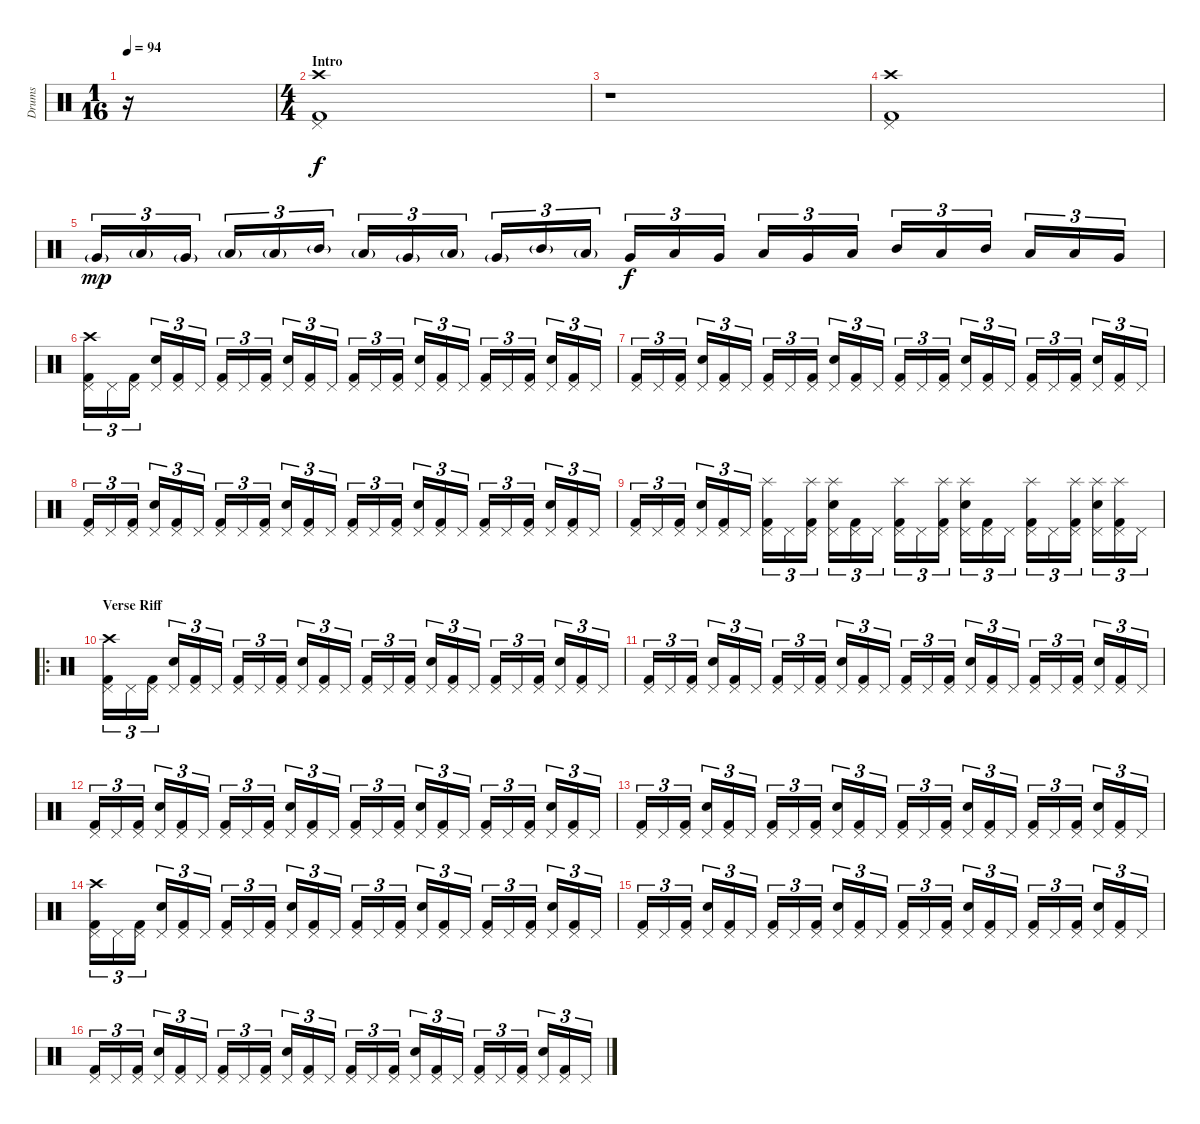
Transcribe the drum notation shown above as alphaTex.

\track ("Drums" "Drums") {instrument percussion}
\staff {score}
\articulation defaults
\ts (1 16)
\tempo 94
\clef neutral
\ks c
r.16{dy f} |
\ts (4 4)
\section ("" "Intro")
("Kick (hit) 2" "Pedal Hi-Hat (hit)" "Crash high (hit)").1 |
r.1 |
("Kick (hit) 2" "Pedal Hi-Hat (hit)" "Crash high (hit)").1 |
"Very Low Tom (hit)"{g}.16{tu (3 2) dy mp} "Low Floor Tom (hit)"{g}.16{tu (3 2)} "Very Low Tom (hit)"{g}.16{tu (3 2)} "Low Tom (hit)"{g}.16{tu (3 2)} "Low Tom (hit)"{g}.16{tu (3 2)} "Mid Tom (hit)"{g}.16{tu (3 2)} "Low Tom (hit)"{g}.16{tu (3 2)} "Very Low Tom (hit)"{g}.16{tu (3 2)} "Low Floor Tom (hit)"{g}.16{tu (3 2)} "Very Low Tom (hit)"{g}.16{tu (3 2)} "Mid Tom (hit)"{g}.16{tu (3 2)} "Low Tom (hit)"{g}.16{tu (3 2)} "Very Low Tom (hit)".16{tu (3 2) dy f} "Low Floor Tom (hit)".16{tu (3 2)} "Very Low Tom (hit)".16{tu (3 2)} "Low Tom (hit)".16{tu (3 2)} "Very Low Tom (hit)".16{tu (3 2)} "Low Tom (hit)".16{tu (3 2)} "Mid Tom (hit)".16{tu (3 2)} "Low Tom (hit)".16{tu (3 2)} "Mid Tom (hit)".16{tu (3 2)} "Low Tom (hit)".16{tu (3 2)} "Low Tom (hit)".16{tu (3 2)} "Very Low Tom (hit)".16{tu (3 2)} |
("Kick (hit) 2" "Pedal Hi-Hat (hit)" "Crash high (hit)").16{tu (3 2)} "Pedal Hi-Hat (hit)".16{tu (3 2)} ("Kick (hit) 2" "Pedal Hi-Hat (hit)").16{tu (3 2)} ("Snare (hit) 2" "Pedal Hi-Hat (hit)").16{tu (3 2)} ("Kick (hit) 2" "Pedal Hi-Hat (hit)").16{tu (3 2)} "Pedal Hi-Hat (hit)".16{tu (3 2)} ("Kick (hit) 2" "Pedal Hi-Hat (hit)").16{tu (3 2)} "Pedal Hi-Hat (hit)".16{tu (3 2)} ("Kick (hit) 2" "Pedal Hi-Hat (hit)").16{tu (3 2)} ("Snare (hit) 2" "Pedal Hi-Hat (hit)").16{tu (3 2)} ("Kick (hit) 2" "Pedal Hi-Hat (hit)").16{tu (3 2)} "Pedal Hi-Hat (hit)".16{tu (3 2)} ("Kick (hit) 2" "Pedal Hi-Hat (hit)").16{tu (3 2)} "Pedal Hi-Hat (hit)".16{tu (3 2)} ("Kick (hit) 2" "Pedal Hi-Hat (hit)").16{tu (3 2)} ("Snare (hit) 2" "Pedal Hi-Hat (hit)").16{tu (3 2)} ("Kick (hit) 2" "Pedal Hi-Hat (hit)").16{tu (3 2)} "Pedal Hi-Hat (hit)".16{tu (3 2)} ("Kick (hit) 2" "Pedal Hi-Hat (hit)").16{tu (3 2)} "Pedal Hi-Hat (hit)".16{tu (3 2)} ("Kick (hit) 2" "Pedal Hi-Hat (hit)").16{tu (3 2)} ("Snare (hit) 2" "Pedal Hi-Hat (hit)").16{tu (3 2)} ("Kick (hit) 2" "Pedal Hi-Hat (hit)").16{tu (3 2)} "Pedal Hi-Hat (hit)".16{tu (3 2)} |
("Kick (hit) 2" "Pedal Hi-Hat (hit)").16{tu (3 2)} "Pedal Hi-Hat (hit)".16{tu (3 2)} ("Kick (hit) 2" "Pedal Hi-Hat (hit)").16{tu (3 2)} ("Snare (hit) 2" "Pedal Hi-Hat (hit)").16{tu (3 2)} ("Kick (hit) 2" "Pedal Hi-Hat (hit)").16{tu (3 2)} "Pedal Hi-Hat (hit)".16{tu (3 2)} ("Kick (hit) 2" "Pedal Hi-Hat (hit)").16{tu (3 2)} "Pedal Hi-Hat (hit)".16{tu (3 2)} ("Kick (hit) 2" "Pedal Hi-Hat (hit)").16{tu (3 2)} ("Snare (hit) 2" "Pedal Hi-Hat (hit)").16{tu (3 2)} ("Kick (hit) 2" "Pedal Hi-Hat (hit)").16{tu (3 2)} "Pedal Hi-Hat (hit)".16{tu (3 2)} ("Kick (hit) 2" "Pedal Hi-Hat (hit)").16{tu (3 2)} "Pedal Hi-Hat (hit)".16{tu (3 2)} ("Kick (hit) 2" "Pedal Hi-Hat (hit)").16{tu (3 2)} ("Snare (hit) 2" "Pedal Hi-Hat (hit)").16{tu (3 2)} ("Kick (hit) 2" "Pedal Hi-Hat (hit)").16{tu (3 2)} "Pedal Hi-Hat (hit)".16{tu (3 2)} ("Kick (hit) 2" "Pedal Hi-Hat (hit)").16{tu (3 2)} "Pedal Hi-Hat (hit)".16{tu (3 2)} ("Kick (hit) 2" "Pedal Hi-Hat (hit)").16{tu (3 2)} ("Snare (hit) 2" "Pedal Hi-Hat (hit)").16{tu (3 2)} ("Kick (hit) 2" "Pedal Hi-Hat (hit)").16{tu (3 2)} "Pedal Hi-Hat (hit)".16{tu (3 2)} |
("Kick (hit) 2" "Pedal Hi-Hat (hit)").16{tu (3 2)} "Pedal Hi-Hat (hit)".16{tu (3 2)} ("Kick (hit) 2" "Pedal Hi-Hat (hit)").16{tu (3 2)} ("Snare (hit) 2" "Pedal Hi-Hat (hit)").16{tu (3 2)} ("Kick (hit) 2" "Pedal Hi-Hat (hit)").16{tu (3 2)} "Pedal Hi-Hat (hit)".16{tu (3 2)} ("Kick (hit) 2" "Pedal Hi-Hat (hit)").16{tu (3 2)} "Pedal Hi-Hat (hit)".16{tu (3 2)} ("Kick (hit) 2" "Pedal Hi-Hat (hit)").16{tu (3 2)} ("Snare (hit) 2" "Pedal Hi-Hat (hit)").16{tu (3 2)} ("Kick (hit) 2" "Pedal Hi-Hat (hit)").16{tu (3 2)} "Pedal Hi-Hat (hit)".16{tu (3 2)} ("Kick (hit) 2" "Pedal Hi-Hat (hit)").16{tu (3 2)} "Pedal Hi-Hat (hit)".16{tu (3 2)} ("Kick (hit) 2" "Pedal Hi-Hat (hit)").16{tu (3 2)} ("Snare (hit) 2" "Pedal Hi-Hat (hit)").16{tu (3 2)} ("Kick (hit) 2" "Pedal Hi-Hat (hit)").16{tu (3 2)} "Pedal Hi-Hat (hit)".16{tu (3 2)} ("Kick (hit) 2" "Pedal Hi-Hat (hit)").16{tu (3 2)} "Pedal Hi-Hat (hit)".16{tu (3 2)} ("Kick (hit) 2" "Pedal Hi-Hat (hit)").16{tu (3 2)} ("Snare (hit) 2" "Pedal Hi-Hat (hit)").16{tu (3 2)} ("Kick (hit) 2" "Pedal Hi-Hat (hit)").16{tu (3 2)} "Pedal Hi-Hat (hit)".16{tu (3 2)} |
("Kick (hit) 2" "Pedal Hi-Hat (hit)").16{tu (3 2)} "Pedal Hi-Hat (hit)".16{tu (3 2)} ("Kick (hit) 2" "Pedal Hi-Hat (hit)").16{tu (3 2)} ("Snare (hit) 2" "Pedal Hi-Hat (hit)").16{tu (3 2)} ("Kick (hit) 2" "Pedal Hi-Hat (hit)").16{tu (3 2)} "Pedal Hi-Hat (hit)".16{tu (3 2)} ("Kick (hit) 2" "Pedal Hi-Hat (hit)" "Splash (hit)").16{tu (3 2)} "Pedal Hi-Hat (hit)".16{tu (3 2)} ("Kick (hit) 2" "Pedal Hi-Hat (hit)" "Splash (hit)").16{tu (3 2)} ("Snare (hit) 2" "Pedal Hi-Hat (hit)" "Splash (hit)").16{tu (3 2)} ("Kick (hit) 2" "Pedal Hi-Hat (hit)").16{tu (3 2)} "Pedal Hi-Hat (hit)".16{tu (3 2)} ("Kick (hit) 2" "Pedal Hi-Hat (hit)" "Splash (hit)").16{tu (3 2)} "Pedal Hi-Hat (hit)".16{tu (3 2)} ("Kick (hit) 2" "Pedal Hi-Hat (hit)" "Splash (hit)").16{tu (3 2)} ("Snare (hit) 2" "Pedal Hi-Hat (hit)" "Splash (hit)").16{tu (3 2)} ("Kick (hit) 2" "Pedal Hi-Hat (hit)").16{tu (3 2)} "Pedal Hi-Hat (hit)".16{tu (3 2)} ("Kick (hit) 2" "Pedal Hi-Hat (hit)" "Splash (hit)").16{tu (3 2)} "Pedal Hi-Hat (hit)".16{tu (3 2)} ("Kick (hit) 2" "Pedal Hi-Hat (hit)" "Splash (hit)").16{tu (3 2)} ("Snare (hit) 2" "Pedal Hi-Hat (hit)" "Splash (hit)").16{tu (3 2)} ("Kick (hit) 2" "Pedal Hi-Hat (hit)" "Splash (hit)").16{tu (3 2)} "Pedal Hi-Hat (hit)".16{tu (3 2)} |
\ro
\section ("" "Verse Riff")
("Kick (hit) 2" "Pedal Hi-Hat (hit)" "Crash high (hit)").16{tu (3 2)} "Pedal Hi-Hat (hit)".16{tu (3 2)} ("Kick (hit) 2" "Pedal Hi-Hat (hit)").16{tu (3 2)} ("Snare (hit) 2" "Pedal Hi-Hat (hit)").16{tu (3 2)} ("Kick (hit) 2" "Pedal Hi-Hat (hit)").16{tu (3 2)} "Pedal Hi-Hat (hit)".16{tu (3 2)} ("Kick (hit) 2" "Pedal Hi-Hat (hit)").16{tu (3 2)} "Pedal Hi-Hat (hit)".16{tu (3 2)} ("Kick (hit) 2" "Pedal Hi-Hat (hit)").16{tu (3 2)} ("Snare (hit) 2" "Pedal Hi-Hat (hit)").16{tu (3 2)} ("Kick (hit) 2" "Pedal Hi-Hat (hit)").16{tu (3 2)} "Pedal Hi-Hat (hit)".16{tu (3 2)} ("Kick (hit) 2" "Pedal Hi-Hat (hit)").16{tu (3 2)} "Pedal Hi-Hat (hit)".16{tu (3 2)} ("Kick (hit) 2" "Pedal Hi-Hat (hit)").16{tu (3 2)} ("Snare (hit) 2" "Pedal Hi-Hat (hit)").16{tu (3 2)} ("Kick (hit) 2" "Pedal Hi-Hat (hit)").16{tu (3 2)} "Pedal Hi-Hat (hit)".16{tu (3 2)} ("Kick (hit) 2" "Pedal Hi-Hat (hit)").16{tu (3 2)} "Pedal Hi-Hat (hit)".16{tu (3 2)} ("Kick (hit) 2" "Pedal Hi-Hat (hit)").16{tu (3 2)} ("Snare (hit) 2" "Pedal Hi-Hat (hit)").16{tu (3 2)} ("Kick (hit) 2" "Pedal Hi-Hat (hit)").16{tu (3 2)} "Pedal Hi-Hat (hit)".16{tu (3 2)} |
("Kick (hit) 2" "Pedal Hi-Hat (hit)").16{tu (3 2)} "Pedal Hi-Hat (hit)".16{tu (3 2)} ("Kick (hit) 2" "Pedal Hi-Hat (hit)").16{tu (3 2)} ("Snare (hit) 2" "Pedal Hi-Hat (hit)").16{tu (3 2)} ("Kick (hit) 2" "Pedal Hi-Hat (hit)").16{tu (3 2)} "Pedal Hi-Hat (hit)".16{tu (3 2)} ("Kick (hit) 2" "Pedal Hi-Hat (hit)").16{tu (3 2)} "Pedal Hi-Hat (hit)".16{tu (3 2)} ("Kick (hit) 2" "Pedal Hi-Hat (hit)").16{tu (3 2)} ("Snare (hit) 2" "Pedal Hi-Hat (hit)").16{tu (3 2)} ("Kick (hit) 2" "Pedal Hi-Hat (hit)").16{tu (3 2)} "Pedal Hi-Hat (hit)".16{tu (3 2)} ("Kick (hit) 2" "Pedal Hi-Hat (hit)").16{tu (3 2)} "Pedal Hi-Hat (hit)".16{tu (3 2)} ("Kick (hit) 2" "Pedal Hi-Hat (hit)").16{tu (3 2)} ("Snare (hit) 2" "Pedal Hi-Hat (hit)").16{tu (3 2)} ("Kick (hit) 2" "Pedal Hi-Hat (hit)").16{tu (3 2)} "Pedal Hi-Hat (hit)".16{tu (3 2)} ("Kick (hit) 2" "Pedal Hi-Hat (hit)").16{tu (3 2)} "Pedal Hi-Hat (hit)".16{tu (3 2)} ("Kick (hit) 2" "Pedal Hi-Hat (hit)").16{tu (3 2)} ("Snare (hit) 2" "Pedal Hi-Hat (hit)").16{tu (3 2)} ("Kick (hit) 2" "Pedal Hi-Hat (hit)").16{tu (3 2)} "Pedal Hi-Hat (hit)".16{tu (3 2)} |
("Kick (hit) 2" "Pedal Hi-Hat (hit)").16{tu (3 2)} "Pedal Hi-Hat (hit)".16{tu (3 2)} ("Kick (hit) 2" "Pedal Hi-Hat (hit)").16{tu (3 2)} ("Snare (hit) 2" "Pedal Hi-Hat (hit)").16{tu (3 2)} ("Kick (hit) 2" "Pedal Hi-Hat (hit)").16{tu (3 2)} "Pedal Hi-Hat (hit)".16{tu (3 2)} ("Kick (hit) 2" "Pedal Hi-Hat (hit)").16{tu (3 2)} "Pedal Hi-Hat (hit)".16{tu (3 2)} ("Kick (hit) 2" "Pedal Hi-Hat (hit)").16{tu (3 2)} ("Snare (hit) 2" "Pedal Hi-Hat (hit)").16{tu (3 2)} ("Kick (hit) 2" "Pedal Hi-Hat (hit)").16{tu (3 2)} "Pedal Hi-Hat (hit)".16{tu (3 2)} ("Kick (hit) 2" "Pedal Hi-Hat (hit)").16{tu (3 2)} "Pedal Hi-Hat (hit)".16{tu (3 2)} ("Kick (hit) 2" "Pedal Hi-Hat (hit)").16{tu (3 2)} ("Snare (hit) 2" "Pedal Hi-Hat (hit)").16{tu (3 2)} ("Kick (hit) 2" "Pedal Hi-Hat (hit)").16{tu (3 2)} "Pedal Hi-Hat (hit)".16{tu (3 2)} ("Kick (hit) 2" "Pedal Hi-Hat (hit)").16{tu (3 2)} "Pedal Hi-Hat (hit)".16{tu (3 2)} ("Kick (hit) 2" "Pedal Hi-Hat (hit)").16{tu (3 2)} ("Snare (hit) 2" "Pedal Hi-Hat (hit)").16{tu (3 2)} ("Kick (hit) 2" "Pedal Hi-Hat (hit)").16{tu (3 2)} "Pedal Hi-Hat (hit)".16{tu (3 2)} |
("Kick (hit) 2" "Pedal Hi-Hat (hit)").16{tu (3 2)} "Pedal Hi-Hat (hit)".16{tu (3 2)} ("Kick (hit) 2" "Pedal Hi-Hat (hit)").16{tu (3 2)} ("Snare (hit) 2" "Pedal Hi-Hat (hit)").16{tu (3 2)} ("Kick (hit) 2" "Pedal Hi-Hat (hit)").16{tu (3 2)} "Pedal Hi-Hat (hit)".16{tu (3 2)} ("Kick (hit) 2" "Pedal Hi-Hat (hit)").16{tu (3 2)} "Pedal Hi-Hat (hit)".16{tu (3 2)} ("Kick (hit) 2" "Pedal Hi-Hat (hit)").16{tu (3 2)} ("Snare (hit) 2" "Pedal Hi-Hat (hit)").16{tu (3 2)} ("Kick (hit) 2" "Pedal Hi-Hat (hit)").16{tu (3 2)} "Pedal Hi-Hat (hit)".16{tu (3 2)} ("Kick (hit) 2" "Pedal Hi-Hat (hit)").16{tu (3 2)} "Pedal Hi-Hat (hit)".16{tu (3 2)} ("Kick (hit) 2" "Pedal Hi-Hat (hit)").16{tu (3 2)} ("Snare (hit) 2" "Pedal Hi-Hat (hit)").16{tu (3 2)} ("Kick (hit) 2" "Pedal Hi-Hat (hit)").16{tu (3 2)} "Pedal Hi-Hat (hit)".16{tu (3 2)} ("Kick (hit) 2" "Pedal Hi-Hat (hit)").16{tu (3 2)} "Pedal Hi-Hat (hit)".16{tu (3 2)} ("Kick (hit) 2" "Pedal Hi-Hat (hit)").16{tu (3 2)} ("Snare (hit) 2" "Pedal Hi-Hat (hit)").16{tu (3 2)} ("Kick (hit) 2" "Pedal Hi-Hat (hit)").16{tu (3 2)} "Pedal Hi-Hat (hit)".16{tu (3 2)} |
("Kick (hit) 2" "Pedal Hi-Hat (hit)" "Crash high (hit)").16{tu (3 2)} "Pedal Hi-Hat (hit)".16{tu (3 2)} ("Kick (hit) 2" "Pedal Hi-Hat (hit)").16{tu (3 2)} ("Snare (hit) 2" "Pedal Hi-Hat (hit)").16{tu (3 2)} ("Kick (hit) 2" "Pedal Hi-Hat (hit)").16{tu (3 2)} "Pedal Hi-Hat (hit)".16{tu (3 2)} ("Kick (hit) 2" "Pedal Hi-Hat (hit)").16{tu (3 2)} "Pedal Hi-Hat (hit)".16{tu (3 2)} ("Kick (hit) 2" "Pedal Hi-Hat (hit)").16{tu (3 2)} ("Snare (hit) 2" "Pedal Hi-Hat (hit)").16{tu (3 2)} ("Kick (hit) 2" "Pedal Hi-Hat (hit)").16{tu (3 2)} "Pedal Hi-Hat (hit)".16{tu (3 2)} ("Kick (hit) 2" "Pedal Hi-Hat (hit)").16{tu (3 2)} "Pedal Hi-Hat (hit)".16{tu (3 2)} ("Kick (hit) 2" "Pedal Hi-Hat (hit)").16{tu (3 2)} ("Snare (hit) 2" "Pedal Hi-Hat (hit)").16{tu (3 2)} ("Kick (hit) 2" "Pedal Hi-Hat (hit)").16{tu (3 2)} "Pedal Hi-Hat (hit)".16{tu (3 2)} ("Kick (hit) 2" "Pedal Hi-Hat (hit)").16{tu (3 2)} "Pedal Hi-Hat (hit)".16{tu (3 2)} ("Kick (hit) 2" "Pedal Hi-Hat (hit)").16{tu (3 2)} ("Snare (hit) 2" "Pedal Hi-Hat (hit)").16{tu (3 2)} ("Kick (hit) 2" "Pedal Hi-Hat (hit)").16{tu (3 2)} "Pedal Hi-Hat (hit)".16{tu (3 2)} |
("Kick (hit) 2" "Pedal Hi-Hat (hit)").16{tu (3 2)} "Pedal Hi-Hat (hit)".16{tu (3 2)} ("Kick (hit) 2" "Pedal Hi-Hat (hit)").16{tu (3 2)} ("Snare (hit) 2" "Pedal Hi-Hat (hit)").16{tu (3 2)} ("Kick (hit) 2" "Pedal Hi-Hat (hit)").16{tu (3 2)} "Pedal Hi-Hat (hit)".16{tu (3 2)} ("Kick (hit) 2" "Pedal Hi-Hat (hit)").16{tu (3 2)} "Pedal Hi-Hat (hit)".16{tu (3 2)} ("Kick (hit) 2" "Pedal Hi-Hat (hit)").16{tu (3 2)} ("Snare (hit) 2" "Pedal Hi-Hat (hit)").16{tu (3 2)} ("Kick (hit) 2" "Pedal Hi-Hat (hit)").16{tu (3 2)} "Pedal Hi-Hat (hit)".16{tu (3 2)} ("Kick (hit) 2" "Pedal Hi-Hat (hit)").16{tu (3 2)} "Pedal Hi-Hat (hit)".16{tu (3 2)} ("Kick (hit) 2" "Pedal Hi-Hat (hit)").16{tu (3 2)} ("Snare (hit) 2" "Pedal Hi-Hat (hit)").16{tu (3 2)} ("Kick (hit) 2" "Pedal Hi-Hat (hit)").16{tu (3 2)} "Pedal Hi-Hat (hit)".16{tu (3 2)} ("Kick (hit) 2" "Pedal Hi-Hat (hit)").16{tu (3 2)} "Pedal Hi-Hat (hit)".16{tu (3 2)} ("Kick (hit) 2" "Pedal Hi-Hat (hit)").16{tu (3 2)} ("Snare (hit) 2" "Pedal Hi-Hat (hit)").16{tu (3 2)} ("Kick (hit) 2" "Pedal Hi-Hat (hit)").16{tu (3 2)} "Pedal Hi-Hat (hit)".16{tu (3 2)} |
("Kick (hit) 2" "Pedal Hi-Hat (hit)").16{tu (3 2)} "Pedal Hi-Hat (hit)".16{tu (3 2)} ("Kick (hit) 2" "Pedal Hi-Hat (hit)").16{tu (3 2)} ("Snare (hit) 2" "Pedal Hi-Hat (hit)").16{tu (3 2)} ("Kick (hit) 2" "Pedal Hi-Hat (hit)").16{tu (3 2)} "Pedal Hi-Hat (hit)".16{tu (3 2)} ("Kick (hit) 2" "Pedal Hi-Hat (hit)").16{tu (3 2)} "Pedal Hi-Hat (hit)".16{tu (3 2)} ("Kick (hit) 2" "Pedal Hi-Hat (hit)").16{tu (3 2)} ("Snare (hit) 2" "Pedal Hi-Hat (hit)").16{tu (3 2)} ("Kick (hit) 2" "Pedal Hi-Hat (hit)").16{tu (3 2)} "Pedal Hi-Hat (hit)".16{tu (3 2)} ("Kick (hit) 2" "Pedal Hi-Hat (hit)").16{tu (3 2)} "Pedal Hi-Hat (hit)".16{tu (3 2)} ("Kick (hit) 2" "Pedal Hi-Hat (hit)").16{tu (3 2)} ("Snare (hit) 2" "Pedal Hi-Hat (hit)").16{tu (3 2)} ("Kick (hit) 2" "Pedal Hi-Hat (hit)").16{tu (3 2)} "Pedal Hi-Hat (hit)".16{tu (3 2)} ("Kick (hit) 2" "Pedal Hi-Hat (hit)").16{tu (3 2)} "Pedal Hi-Hat (hit)".16{tu (3 2)} ("Kick (hit) 2" "Pedal Hi-Hat (hit)").16{tu (3 2)} ("Snare (hit) 2" "Pedal Hi-Hat (hit)").16{tu (3 2)} ("Kick (hit) 2" "Pedal Hi-Hat (hit)").16{tu (3 2)} "Pedal Hi-Hat (hit)".16{tu (3 2)}
